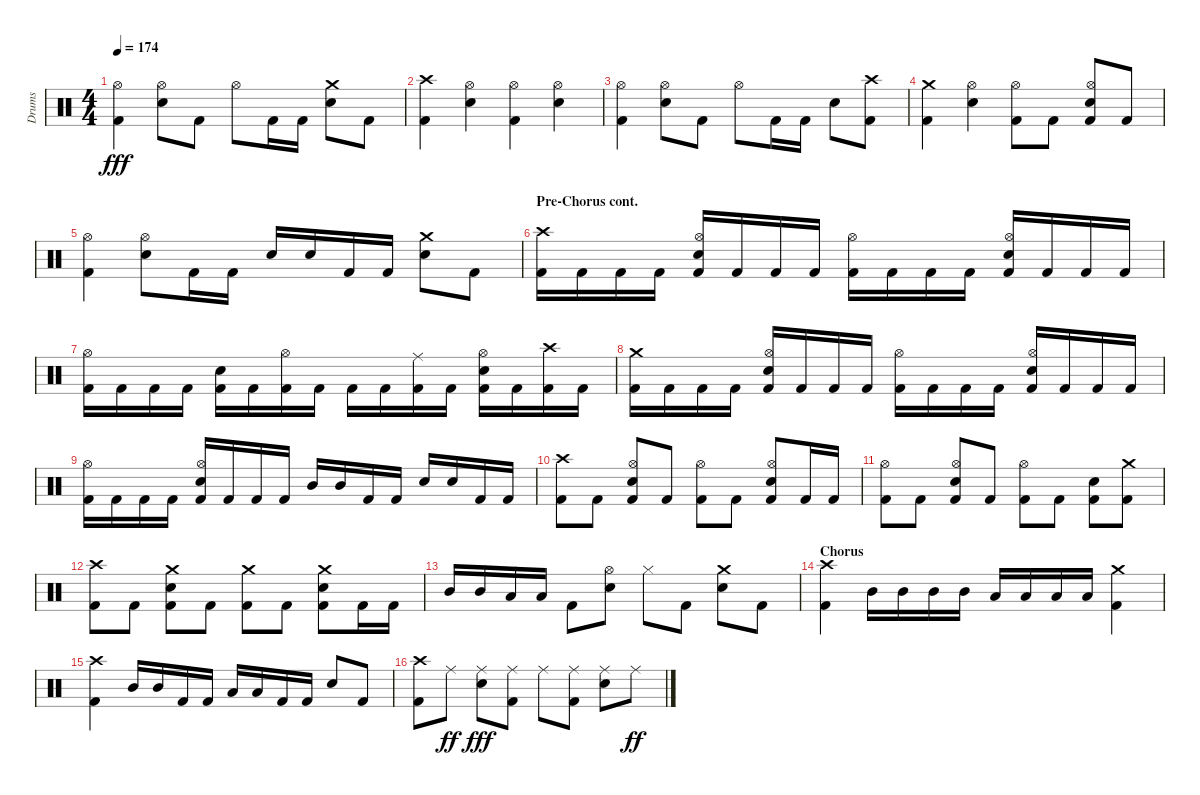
\track ("Drums" "Drums") {instrument percussion}
\staff {score}
\articulation defaults
\ts (4 4)
\tempo 174
\clef neutral
\ks aminor
("Kick (hit) 2" "Hi-Hat (open)").4{dy fff} ("Snare (hit) 2" "Hi-Hat (open)").8 "Kick (hit) 2".8 "Hi-Hat (open)".8 "Kick (hit) 2".16 "Kick (hit) 2".16 ("Snare (hit) 2" "Crash medium (hit)").8 "Kick (hit) 2".8 |
("Kick (hit) 2" "Crash high (hit)").4 ("Snare (hit) 2" "Hi-Hat (open)").4 ("Kick (hit) 2" "Hi-Hat (open)").4 ("Snare (hit) 2" "Hi-Hat (open)").4 |
("Kick (hit) 2" "Hi-Hat (open)").4 ("Snare (hit) 2" "Hi-Hat (open)").8 "Kick (hit) 2".8 "Hi-Hat (open)".8 "Kick (hit) 2".16 "Kick (hit) 2".16 "Snare (hit) 2".8 ("Kick (hit) 2" "Crash high (hit)").8 |
("Kick (hit) 2" "Crash medium (hit)").4 ("Snare (hit) 2" "Hi-Hat (open)").4 ("Kick (hit) 2" "Hi-Hat (open)").8 "Kick (hit) 2".8 ("Kick (hit) 2" "Snare (hit) 2" "Hi-Hat (open)").8 "Kick (hit) 2".8 |
("Kick (hit) 2" "Hi-Hat (open)").4 ("Snare (hit) 2" "Hi-Hat (open)").8 "Kick (hit) 2".16 "Kick (hit) 2".16 "Snare (hit) 2".16 "Snare (hit) 2".16 "Kick (hit) 2".16 "Kick (hit) 2".16 ("Snare (hit) 2" "Crash medium (hit)").8 "Kick (hit) 2".8 |
\section ("" "Pre-Chorus cont.")
("Kick (hit) 2" "Crash high (hit)").16 "Kick (hit) 2".16 "Kick (hit) 2".16 "Kick (hit) 2".16 ("Kick (hit) 2" "Snare (hit) 2" "Hi-Hat (open)").16 "Kick (hit) 2".16 "Kick (hit) 2".16 "Kick (hit) 2".16 ("Kick (hit) 2" "Hi-Hat (open)").16 "Kick (hit) 2".16 "Kick (hit) 2".16 "Kick (hit) 2".16 ("Kick (hit) 2" "Snare (hit) 2" "Hi-Hat (open)").16 "Kick (hit) 2".16 "Kick (hit) 2".16 "Kick (hit) 2".16 |
("Kick (hit) 2" "Hi-Hat (open)").16 "Kick (hit) 2".16 "Kick (hit) 2".16 "Kick (hit) 2".16 ("Kick (hit) 2" "Snare (hit) 2").16 "Kick (hit) 2".16 ("Kick (hit) 2" "Hi-Hat (open)").16 "Kick (hit) 2".16 "Kick (hit) 2".16 "Kick (hit) 2".16 ("Kick (hit) 2" "Ride (middle)").16 "Kick (hit) 2".16 ("Kick (hit) 2" "Snare (hit) 2" "Hi-Hat (open)").16 "Kick (hit) 2".16 ("Kick (hit) 2" "Crash high (hit)").16 "Kick (hit) 2".16 |
("Kick (hit) 2" "Crash medium (hit)").16 "Kick (hit) 2".16 "Kick (hit) 2".16 "Kick (hit) 2".16 ("Kick (hit) 2" "Snare (hit) 2" "Hi-Hat (open)").16 "Kick (hit) 2".16 "Kick (hit) 2".16 "Kick (hit) 2".16 ("Kick (hit) 2" "Hi-Hat (open)").16 "Kick (hit) 2".16 "Kick (hit) 2".16 "Kick (hit) 2".16 ("Kick (hit) 2" "Snare (hit) 2" "Hi-Hat (open)").16 "Kick (hit) 2".16 "Kick (hit) 2".16 "Kick (hit) 2".16 |
("Kick (hit) 2" "Hi-Hat (open)").16 "Kick (hit) 2".16 "Kick (hit) 2".16 "Kick (hit) 2".16 ("Kick (hit) 2" "Snare (hit) 2" "Hi-Hat (open)").16 "Kick (hit) 2".16 "Kick (hit) 2".16 "Kick (hit) 2".16 "Mid Tom (hit)".16 "Mid Tom (hit)".16 "Kick (hit) 2".16 "Kick (hit) 2".16 "Snare (hit) 2".16 "Snare (hit) 2".16 "Kick (hit) 2".16 "Kick (hit) 2".16 |
("Kick (hit) 2" "Crash high (hit)").8 "Kick (hit) 2".8 ("Kick (hit) 2" "Snare (hit) 2" "Hi-Hat (open)").8 "Kick (hit) 2".8 ("Kick (hit) 2" "Hi-Hat (open)").8 "Kick (hit) 2".8 ("Kick (hit) 2" "Snare (hit) 2" "Hi-Hat (open)").8 "Kick (hit) 2".16 "Kick (hit) 2".16 |
("Kick (hit) 2" "Hi-Hat (open)").8 "Kick (hit) 2".8 ("Kick (hit) 2" "Snare (hit) 2" "Hi-Hat (open)").8 "Kick (hit) 2".8 ("Kick (hit) 2" "Hi-Hat (open)").8 "Kick (hit) 2".8 ("Kick (hit) 2" "Snare (hit) 2").8 ("Kick (hit) 2" "Crash medium (hit)").8 |
("Kick (hit) 2" "Crash high (hit)").8 "Kick (hit) 2".8 ("Snare (hit) 2" "Kick (hit) 2" "Crash medium (hit)").8 "Kick (hit) 2".8 ("Kick (hit) 2" "Crash medium (hit)").8 "Kick (hit) 2".8 ("Kick (hit) 2" "Snare (hit) 2" "Crash medium (hit)").8 "Kick (hit) 2".16 "Kick (hit) 2".16 |
"Mid Tom (hit)".16 "Mid Tom (hit)".16 "Low Tom (hit)".16 "Low Tom (hit)".16 "Kick (hit) 2".8 ("Snare (hit) 2" "Hi-Hat (open)").8 "Hi-Hat (closed)".8 "Kick (hit) 2".8 ("Snare (hit) 2" "Crash medium (hit)").8 "Kick (hit) 2".8 |
\section ("" "Chorus")
("Kick (hit) 2" "Crash high (hit)").4 "Mid Tom (hit)".16 "Mid Tom (hit)".16 "Mid Tom (hit)".16 "Mid Tom (hit)".16 "Low Tom (hit)".16 "Low Tom (hit)".16 "Low Tom (hit)".16 "Low Tom (hit)".16 ("Kick (hit) 2" "Crash medium (hit)").4 |
("Kick (hit) 2" "Crash high (hit)").4 "Mid Tom (hit)".16 "Mid Tom (hit)".16 "Kick (hit) 2".16 "Kick (hit) 2".16 "Low Tom (hit)".16 "Low Tom (hit)".16 "Kick (hit) 2".16 "Kick (hit) 2".16 "Snare (hit) 2".8 "Kick (hit) 2".8 |
("Kick (hit) 2" "Crash high (hit)").8 "Ride (middle)".8{dy ff} ("Snare (hit) 2" "Ride (middle)").8{dy fff} ("Kick (hit) 2" "Ride (middle)").8 "Ride (middle)".8 ("Kick (hit) 2" "Ride (middle)").8 ("Snare (hit) 2" "Ride (middle)").8 "Ride (middle)".8{dy ff}
